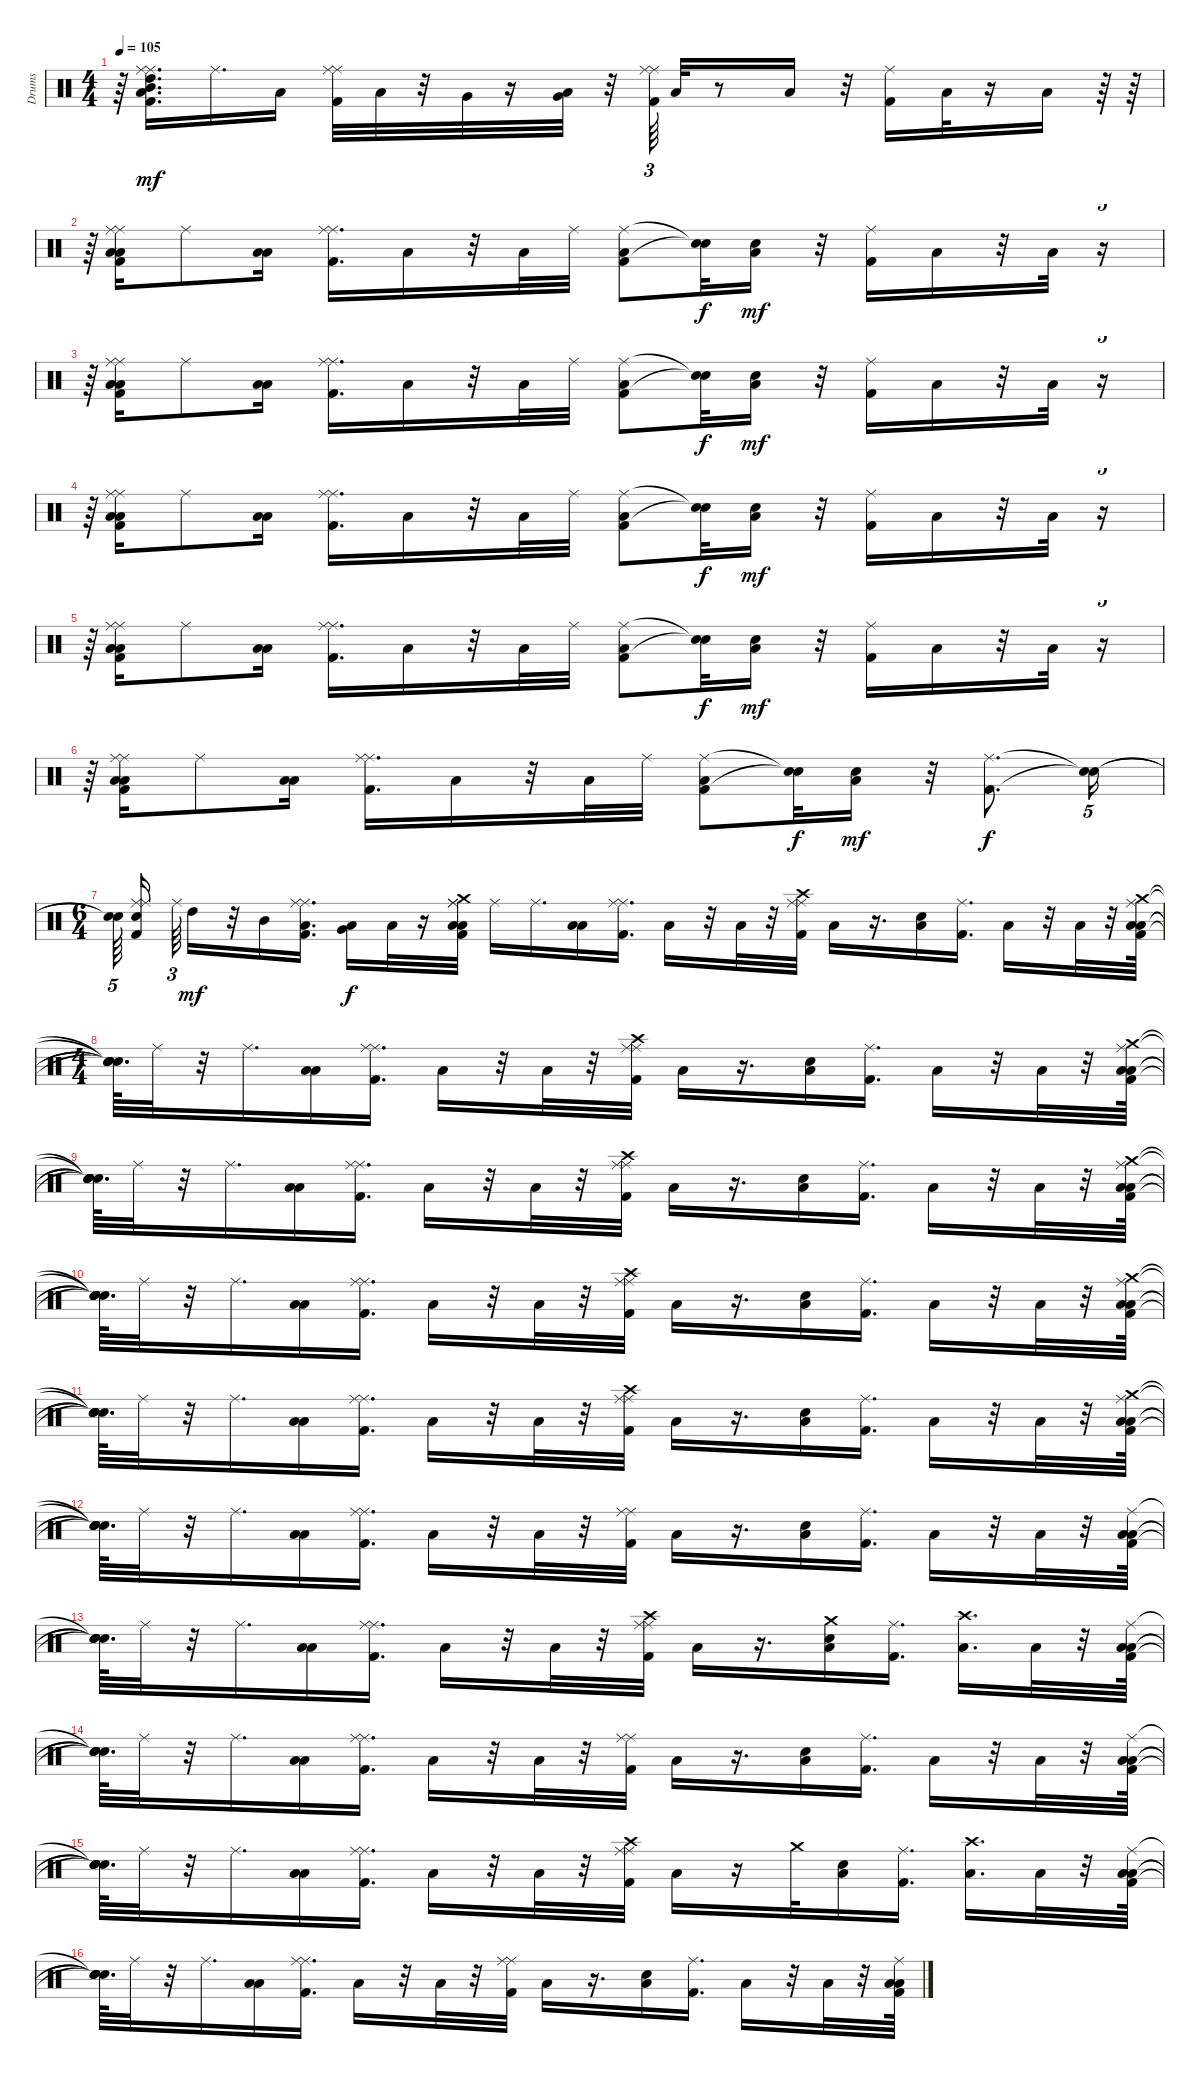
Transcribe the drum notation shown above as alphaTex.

\track ("Drums" "Drums") {instrument percussion}
\staff {score}
\articulation defaults
\ts (4 4)
\tempo 105
\clef neutral
\ks c
r.64{dy mf} ("Low Tom (hit)" "Kick (hit) 2" "Ride (middle)" "High Tom (hit)" "Ride (middle)" "Mid Tom (hit)").16{d} "Ride (middle)".16{d} "Low Tom (hit)".16 ("Kick (hit) 2" "Ride (middle)" "Ride (middle)").32 "Low Tom (hit)".32 r.32 "Very Low Tom (hit)".32 r.16 ("Very Low Tom (hit)" "Low Floor Tom (hit)").32 r.32 ("Ride (middle)" "Kick (hit) 2" "Ride (middle)").64{tu (3 2)} "Low Floor Tom (hit)".32 r.8 "Low Floor Tom (hit)".16 r.32 ("Kick (hit) 2" "Ride (middle)").16 "Low Floor Tom (hit)".32 r.16 "Low Floor Tom (hit)".16 r.64 r.64 |
r.64{tu (5 4)} ("Low Tom (hit)" "Kick (hit) 2" "Ride (middle)" "Low Tom (hit)" "Ride (middle)").16 "Ride (middle)".8 ("Low Tom (hit)" "Low Tom (hit)").16 ("Kick (hit) 2" "Ride (middle)" "Ride (middle)").16{d} "Low Tom (hit)".16 r.32 "Low Tom (hit)".32 "Ride (middle)".32 ("Kick (hit) 2" "Ride (middle)" "Low Tom (hit)").8 ("Snare (hit)"{t} "Snare (hit)"{t}).32{dy f} ("Electric Snare (hit)" "Low Tom (hit)").16{dy mf} r.32 ("Kick (hit) 2" "Ride (middle)").16 "Low Tom (hit)".16 r.32 "Low Tom (hit)".32 r.16{tu (5 4)} |
r.64{tu (5 4)} ("Low Tom (hit)" "Kick (hit) 2" "Ride (middle)" "Low Tom (hit)" "Ride (middle)").16 "Ride (middle)".8 ("Low Tom (hit)" "Low Tom (hit)").16 ("Kick (hit) 2" "Ride (middle)" "Ride (middle)").16{d} "Low Tom (hit)".16 r.32 "Low Tom (hit)".32 "Ride (middle)".32 ("Kick (hit) 2" "Ride (middle)" "Low Tom (hit)").8 ("Snare (hit)"{t} "Snare (hit)"{t}).32{dy f} ("Electric Snare (hit)" "Low Tom (hit)").16{dy mf} r.32 ("Kick (hit) 2" "Ride (middle)").16 "Low Tom (hit)".16 r.32 "Low Tom (hit)".32 r.16{tu (5 4)} |
r.64{tu (5 4)} ("Low Tom (hit)" "Kick (hit) 2" "Ride (middle)" "Low Tom (hit)" "Ride (middle)").16 "Ride (middle)".8 ("Low Tom (hit)" "Low Tom (hit)").16 ("Kick (hit) 2" "Ride (middle)" "Ride (middle)").16{d} "Low Tom (hit)".16 r.32 "Low Tom (hit)".32 "Ride (middle)".32 ("Kick (hit) 2" "Ride (middle)" "Low Tom (hit)").8 ("Snare (hit)"{t} "Snare (hit)"{t}).32{dy f} ("Electric Snare (hit)" "Low Tom (hit)").16{dy mf} r.32 ("Kick (hit) 2" "Ride (middle)").16 "Low Tom (hit)".16 r.32 "Low Tom (hit)".32 r.16{tu (5 4)} |
r.64{tu (5 4)} ("Low Tom (hit)" "Kick (hit) 2" "Ride (middle)" "Low Tom (hit)" "Ride (middle)").16 "Ride (middle)".8 ("Low Tom (hit)" "Low Tom (hit)").16 ("Kick (hit) 2" "Ride (middle)" "Ride (middle)").16{d} "Low Tom (hit)".16 r.32 "Low Tom (hit)".32 "Ride (middle)".32 ("Kick (hit) 2" "Ride (middle)" "Low Tom (hit)").8 ("Snare (hit)"{t} "Snare (hit)"{t}).32{dy f} ("Electric Snare (hit)" "Low Tom (hit)").16{dy mf} r.32 ("Kick (hit) 2" "Ride (middle)").16 "Low Tom (hit)".16 r.32 "Low Tom (hit)".32 r.16{tu (5 4)} |
r.64{tu (5 4)} ("Low Tom (hit)" "Kick (hit) 2" "Ride (middle)" "Low Tom (hit)" "Ride (middle)").16 "Ride (middle)".8 ("Low Tom (hit)" "Low Tom (hit)").16 ("Kick (hit) 2" "Ride (middle)" "Ride (middle)").16{d} "Low Tom (hit)".16 r.32 "Low Tom (hit)".32 "Ride (middle)".32 ("Kick (hit) 2" "Ride (middle)" "Low Tom (hit)").8 ("Snare (hit)"{t} "Snare (hit)"{t}).32{dy f} ("Electric Snare (hit)" "Low Tom (hit)").16{dy mf} r.32 ("Kick (hit) 2" "Ride (middle)").8{d dy f} ("Snare (hit)"{t} "Snare (hit)"{t}).16{tu (5 4)} |
\ts (6 4)
("Snare (hit)"{t} "Snare (hit)"{t}).64{tu (5 4)} ("Kick (hit) 2" "Ride (middle)" "Electric Snare (hit)" "Ride (middle)").16 "Ride (middle)".64{tu (3 2)} "High Tom (hit)".16{dy mf} r.32 "Mid Tom (hit)".16 ("Kick (hit) 2" "Ride (middle)" "Ride (middle)" "Low Tom (hit)").16{d} ("Low Tom (hit)" "Very Low Tom (hit)").16{dy f} "Low Floor Tom (hit)".32 r.16 ("Ride (middle)" "Low Tom (hit)" "Crash medium (hit)" "Kick (hit) 2" "Ride (middle)" "Low Tom (hit)").32 "Ride (middle)".16 "Ride (middle)".16{d} ("Low Tom (hit)" "Low Tom (hit)").16 ("Kick (hit) 2" "Ride (middle)" "Ride (middle)").16{d} "Low Tom (hit)".16 r.32 "Low Tom (hit)".32 r.32 ("Ride (middle)" "Crash high (hit)" "Kick (hit) 2" "Ride (middle)").32 "Low Tom (hit)".16 r.16{d} ("Electric Snare (hit)" "Low Tom (hit)").16 ("Kick (hit) 2" "Ride (middle)").16{d} "Low Tom (hit)".16 r.32 "Low Tom (hit)".32 r.32 ("Low Tom (hit)" "Crash medium (hit)" "Kick (hit) 2" "Ride (middle)" "Low Tom (hit)").64 |
\ts (4 4)
("Snare (hit)"{t} "Snare (hit)"{t} "Snare (hit)"{t} "Snare (hit)"{t} "Snare (hit)"{t}).64{d} "Ride (middle)".32 r.32 "Ride (middle)".16{d} ("Low Tom (hit)" "Low Tom (hit)").16 ("Kick (hit) 2" "Ride (middle)" "Ride (middle)").16{d} "Low Tom (hit)".16 r.32 "Low Tom (hit)".32 r.32 ("Ride (middle)" "Crash high (hit)" "Kick (hit) 2" "Ride (middle)").32 "Low Tom (hit)".16 r.16{d} ("Electric Snare (hit)" "Low Tom (hit)").16 ("Kick (hit) 2" "Ride (middle)").16{d} "Low Tom (hit)".16 r.32 "Low Tom (hit)".32 r.32 ("Low Tom (hit)" "Crash medium (hit)" "Kick (hit) 2" "Ride (middle)" "Low Tom (hit)").64 |
("Snare (hit)"{t} "Snare (hit)"{t} "Snare (hit)"{t} "Snare (hit)"{t} "Snare (hit)"{t}).64{d} "Ride (middle)".32 r.32 "Ride (middle)".16{d} ("Low Tom (hit)" "Low Tom (hit)").16 ("Kick (hit) 2" "Ride (middle)" "Ride (middle)").16{d} "Low Tom (hit)".16 r.32 "Low Tom (hit)".32 r.32 ("Ride (middle)" "Crash high (hit)" "Kick (hit) 2" "Ride (middle)").32 "Low Tom (hit)".16 r.16{d} ("Electric Snare (hit)" "Low Tom (hit)").16 ("Kick (hit) 2" "Ride (middle)").16{d} "Low Tom (hit)".16 r.32 "Low Tom (hit)".32 r.32 ("Low Tom (hit)" "Crash medium (hit)" "Kick (hit) 2" "Ride (middle)" "Low Tom (hit)").64 |
("Snare (hit)"{t} "Snare (hit)"{t} "Snare (hit)"{t} "Snare (hit)"{t} "Snare (hit)"{t}).64{d} "Ride (middle)".32 r.32 "Ride (middle)".16{d} ("Low Tom (hit)" "Low Tom (hit)").16 ("Kick (hit) 2" "Ride (middle)" "Ride (middle)").16{d} "Low Tom (hit)".16 r.32 "Low Tom (hit)".32 r.32 ("Ride (middle)" "Crash high (hit)" "Kick (hit) 2" "Ride (middle)").32 "Low Tom (hit)".16 r.16{d} ("Electric Snare (hit)" "Low Tom (hit)").16 ("Kick (hit) 2" "Ride (middle)").16{d} "Low Tom (hit)".16 r.32 "Low Tom (hit)".32 r.32 ("Low Tom (hit)" "Crash medium (hit)" "Kick (hit) 2" "Ride (middle)" "Low Tom (hit)").64 |
("Snare (hit)"{t} "Snare (hit)"{t} "Snare (hit)"{t} "Snare (hit)"{t} "Snare (hit)"{t}).64{d} "Ride (middle)".32 r.32 "Ride (middle)".16{d} ("Low Tom (hit)" "Low Tom (hit)").16 ("Kick (hit) 2" "Ride (middle)" "Ride (middle)").16{d} "Low Tom (hit)".16 r.32 "Low Tom (hit)".32 r.32 ("Ride (middle)" "Crash high (hit)" "Kick (hit) 2" "Ride (middle)").32 "Low Tom (hit)".16 r.16{d} ("Electric Snare (hit)" "Low Tom (hit)").16 ("Kick (hit) 2" "Ride (middle)").16{d} "Low Tom (hit)".16 r.32 "Low Tom (hit)".32 r.32 ("Low Tom (hit)" "Crash medium (hit)" "Kick (hit) 2" "Ride (middle)" "Low Tom (hit)").64 |
("Snare (hit)"{t} "Snare (hit)"{t} "Snare (hit)"{t} "Snare (hit)"{t} "Snare (hit)"{t}).64{d} "Ride (middle)".32 r.32 "Ride (middle)".16{d} ("Low Tom (hit)" "Low Tom (hit)").16 ("Kick (hit) 2" "Ride (middle)" "Ride (middle)").16{d} "Low Tom (hit)".16 r.32 "Low Tom (hit)".32 r.32 ("Ride (middle)" "Kick (hit) 2" "Ride (middle)").32 "Low Tom (hit)".16 r.16{d} ("Electric Snare (hit)" "Low Tom (hit)").16 ("Kick (hit) 2" "Ride (middle)").16{d} "Low Tom (hit)".16 r.32 "Low Tom (hit)".32 r.32 ("Low Tom (hit)" "Kick (hit) 2" "Ride (middle)" "Low Tom (hit)").64 |
("Snare (hit)"{t} "Snare (hit)"{t} "Snare (hit)"{t} "Snare (hit)"{t}).64{d} "Ride (middle)".32 r.32 "Ride (middle)".16{d} ("Low Tom (hit)" "Low Tom (hit)").16 ("Kick (hit) 2" "Ride (middle)" "Ride (middle)").16{d} "Low Tom (hit)".16 r.32 "Low Tom (hit)".32 r.32 ("Crash high (hit)" "Ride (middle)" "Kick (hit) 2" "Ride (middle)").32 "Low Tom (hit)".16 r.16{d} ("Crash medium (hit)" "Electric Snare (hit)" "Low Tom (hit)").16 ("Kick (hit) 2" "Ride (middle)").16{d} ("Low Tom (hit)" "Crash high (hit)").16{d} "Low Tom (hit)".32 r.32 ("Low Tom (hit)" "Kick (hit) 2" "Ride (middle)" "Low Tom (hit)").64 |
("Snare (hit)"{t} "Snare (hit)"{t} "Snare (hit)"{t} "Snare (hit)"{t}).64{d} "Ride (middle)".32 r.32 "Ride (middle)".16{d} ("Low Tom (hit)" "Low Tom (hit)").16 ("Kick (hit) 2" "Ride (middle)" "Ride (middle)").16{d} "Low Tom (hit)".16 r.32 "Low Tom (hit)".32 r.32 ("Ride (middle)" "Kick (hit) 2" "Ride (middle)").32 "Low Tom (hit)".16 r.16{d} ("Electric Snare (hit)" "Low Tom (hit)").16 ("Kick (hit) 2" "Ride (middle)").16{d} "Low Tom (hit)".16 r.32 "Low Tom (hit)".32 r.32 ("Low Tom (hit)" "Kick (hit) 2" "Ride (middle)" "Low Tom (hit)").64 |
("Snare (hit)"{t} "Snare (hit)"{t} "Snare (hit)"{t} "Snare (hit)"{t}).64{d} "Ride (middle)".32 r.32 "Ride (middle)".16{d} ("Low Tom (hit)" "Low Tom (hit)").16 ("Kick (hit) 2" "Ride (middle)" "Ride (middle)").16{d} "Low Tom (hit)".16 r.32 "Low Tom (hit)".32 r.32 ("Crash high (hit)" "Ride (middle)" "Kick (hit) 2" "Ride (middle)").32 "Low Tom (hit)".16 r.16 "Crash medium (hit)".32 ("Electric Snare (hit)" "Low Tom (hit)").16 ("Kick (hit) 2" "Ride (middle)").16{d} ("Low Tom (hit)" "Crash high (hit)").16{d} "Low Tom (hit)".32 r.32 ("Low Tom (hit)" "Kick (hit) 2" "Ride (middle)" "Low Tom (hit)").64 |
("Snare (hit)"{t} "Snare (hit)"{t} "Snare (hit)"{t} "Snare (hit)"{t}).64{d} "Ride (middle)".32 r.32 "Ride (middle)".16{d} ("Low Tom (hit)" "Low Tom (hit)").16 ("Kick (hit) 2" "Ride (middle)" "Ride (middle)").16{d} "Low Tom (hit)".16 r.32 "Low Tom (hit)".32 r.32 ("Ride (middle)" "Kick (hit) 2" "Ride (middle)").32 "Low Tom (hit)".16 r.16{d} ("Electric Snare (hit)" "Low Tom (hit)").16 ("Kick (hit) 2" "Ride (middle)").16{d} "Low Tom (hit)".16 r.32 "Low Tom (hit)".32 r.32 ("Low Tom (hit)" "Kick (hit) 2" "Ride (middle)" "Low Tom (hit)").64
